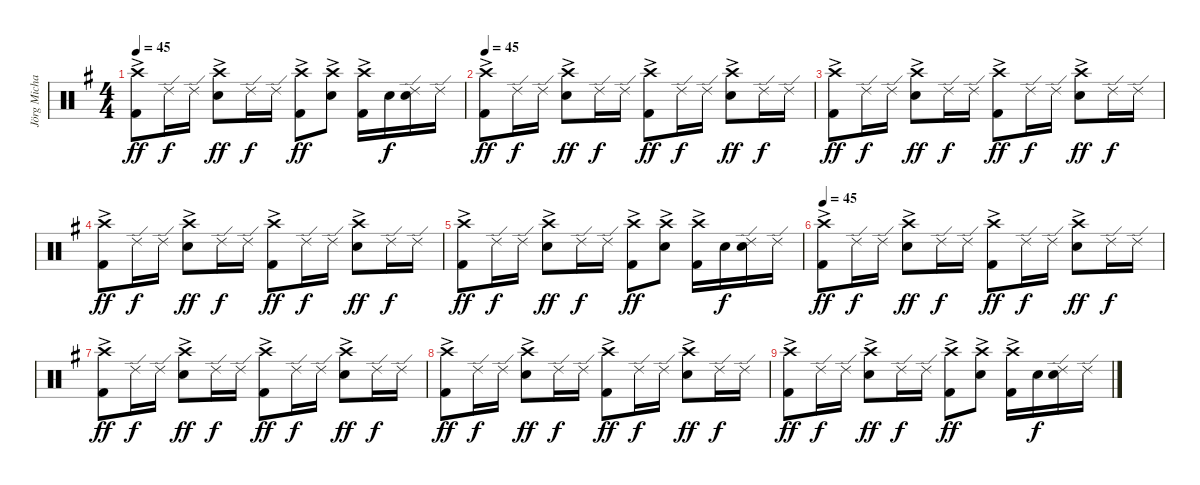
\track ("Jörg Michael" "Jörg Micha") {instrument percussion}
\staff {score}
\articulation defaults
\ts (4 4)
\tempo 45
\clef neutral
\ks g
("Crash high (hit)"{ac} "Kick (hit) 2"{ac}).8{dy ff} "Ride (edge) 2".16{dy f} "Ride (edge) 2".16 ("Electric Snare (hit)" "Crash high (hit)"{ac}).8{dy ff} "Ride (edge) 2".16{dy f} "Ride (edge) 2".16 ("Crash high (hit)"{ac} "Kick (hit) 2"{ac}).8{dy ff} ("Crash high (hit)"{ac} "Electric Snare (hit)").8 ("Crash high (hit)"{ac} "Kick (hit) 2"{ac}).16 "Electric Snare (hit)".16{dy f} ("Ride (edge) 2" "Electric Snare (hit)").16 "Ride (edge) 2".16 |
\tempo 45
("Crash high (hit)"{ac} "Kick (hit) 2"{ac}).8{dy ff} "Ride (edge) 2".16{dy f} "Ride (edge) 2".16 ("Electric Snare (hit)" "Crash high (hit)"{ac}).8{dy ff} "Ride (edge) 2".16{dy f} "Ride (edge) 2".16 ("Crash high (hit)"{ac} "Kick (hit) 2"{ac}).8{dy ff} "Ride (edge) 2".16{dy f} "Ride (edge) 2".16 ("Crash high (hit)"{ac} "Electric Snare (hit)"{ac}).8{dy ff} "Ride (edge) 2".16{dy f} "Ride (edge) 2".16 |
("Crash high (hit)"{ac} "Kick (hit) 2"{ac}).8{dy ff} "Ride (edge) 2".16{dy f} "Ride (edge) 2".16 ("Electric Snare (hit)" "Crash high (hit)"{ac}).8{dy ff} "Ride (edge) 2".16{dy f} "Ride (edge) 2".16 ("Crash high (hit)"{ac} "Kick (hit) 2"{ac}).8{dy ff} "Ride (edge) 2".16{dy f} "Ride (edge) 2".16 ("Crash high (hit)"{ac} "Electric Snare (hit)"{ac}).8{dy ff} "Ride (edge) 2".16{dy f} "Ride (edge) 2".16 |
("Crash high (hit)"{ac} "Kick (hit) 2"{ac}).8{dy ff} "Ride (edge) 2".16{dy f} "Ride (edge) 2".16 ("Electric Snare (hit)" "Crash high (hit)"{ac}).8{dy ff} "Ride (edge) 2".16{dy f} "Ride (edge) 2".16 ("Crash high (hit)"{ac} "Kick (hit) 2"{ac}).8{dy ff} "Ride (edge) 2".16{dy f} "Ride (edge) 2".16 ("Crash high (hit)"{ac} "Electric Snare (hit)"{ac}).8{dy ff} "Ride (edge) 2".16{dy f} "Ride (edge) 2".16 |
("Crash high (hit)"{ac} "Kick (hit) 2"{ac}).8{dy ff} "Ride (edge) 2".16{dy f} "Ride (edge) 2".16 ("Electric Snare (hit)" "Crash high (hit)"{ac}).8{dy ff} "Ride (edge) 2".16{dy f} "Ride (edge) 2".16 ("Crash high (hit)"{ac} "Kick (hit) 2"{ac}).8{dy ff} ("Crash high (hit)"{ac} "Electric Snare (hit)").8 ("Crash high (hit)"{ac} "Kick (hit) 2"{ac}).16 "Electric Snare (hit)".16{dy f} ("Ride (edge) 2" "Electric Snare (hit)").16 "Ride (edge) 2".16 |
\tempo 45
("Crash high (hit)"{ac} "Kick (hit) 2"{ac}).8{dy ff} "Ride (edge) 2".16{dy f} "Ride (edge) 2".16 ("Electric Snare (hit)" "Crash high (hit)"{ac}).8{dy ff} "Ride (edge) 2".16{dy f} "Ride (edge) 2".16 ("Crash high (hit)"{ac} "Kick (hit) 2"{ac}).8{dy ff} "Ride (edge) 2".16{dy f} "Ride (edge) 2".16 ("Crash high (hit)"{ac} "Electric Snare (hit)"{ac}).8{dy ff} "Ride (edge) 2".16{dy f} "Ride (edge) 2".16 |
("Crash high (hit)"{ac} "Kick (hit) 2"{ac}).8{dy ff} "Ride (edge) 2".16{dy f} "Ride (edge) 2".16 ("Electric Snare (hit)" "Crash high (hit)"{ac}).8{dy ff} "Ride (edge) 2".16{dy f} "Ride (edge) 2".16 ("Crash high (hit)"{ac} "Kick (hit) 2"{ac}).8{dy ff} "Ride (edge) 2".16{dy f} "Ride (edge) 2".16 ("Crash high (hit)"{ac} "Electric Snare (hit)"{ac}).8{dy ff} "Ride (edge) 2".16{dy f} "Ride (edge) 2".16 |
("Crash high (hit)"{ac} "Kick (hit) 2"{ac}).8{dy ff} "Ride (edge) 2".16{dy f} "Ride (edge) 2".16 ("Electric Snare (hit)" "Crash high (hit)"{ac}).8{dy ff} "Ride (edge) 2".16{dy f} "Ride (edge) 2".16 ("Crash high (hit)"{ac} "Kick (hit) 2"{ac}).8{dy ff} "Ride (edge) 2".16{dy f} "Ride (edge) 2".16 ("Crash high (hit)"{ac} "Electric Snare (hit)"{ac}).8{dy ff} "Ride (edge) 2".16{dy f} "Ride (edge) 2".16 |
("Crash high (hit)"{ac} "Kick (hit) 2"{ac}).8{dy ff} "Ride (edge) 2".16{dy f} "Ride (edge) 2".16 ("Electric Snare (hit)" "Crash high (hit)"{ac}).8{dy ff} "Ride (edge) 2".16{dy f} "Ride (edge) 2".16 ("Crash high (hit)"{ac} "Kick (hit) 2"{ac}).8{dy ff} ("Crash high (hit)"{ac} "Electric Snare (hit)").8 ("Crash high (hit)"{ac} "Kick (hit) 2"{ac}).16 "Electric Snare (hit)".16{dy f} ("Ride (edge) 2" "Electric Snare (hit)").16 "Ride (edge) 2".16
